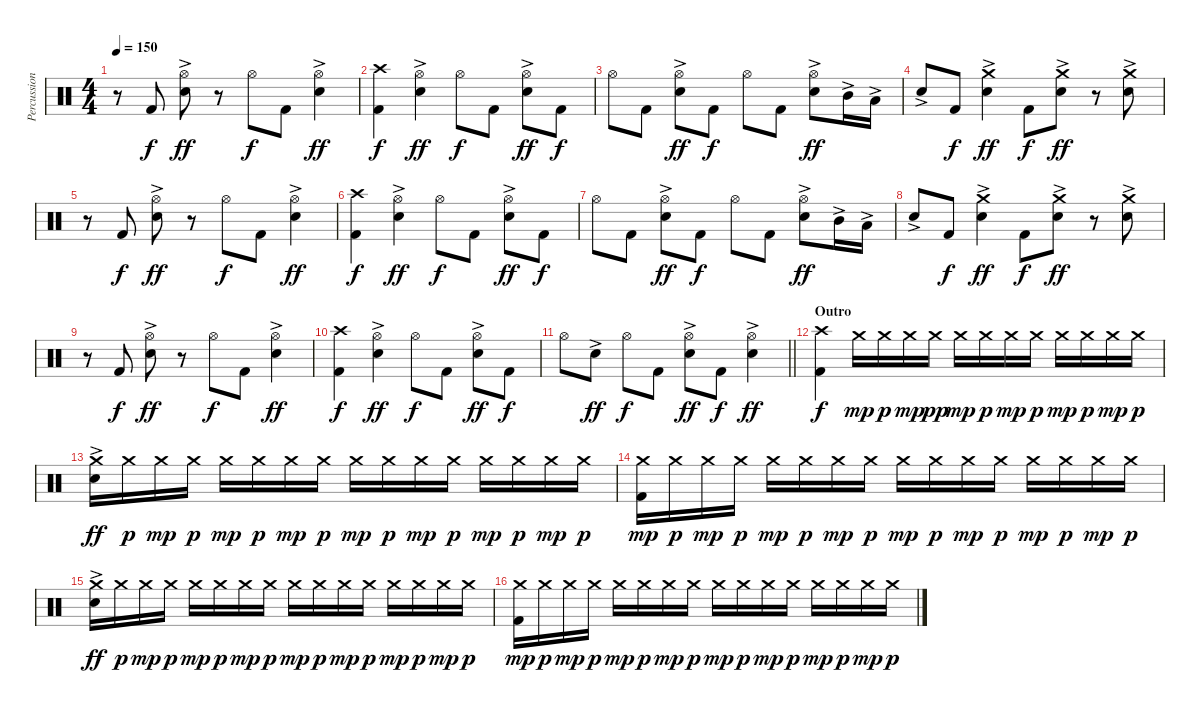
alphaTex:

\track ("Percussion" "Percussion") {instrument percussion}
\staff {score}
\articulation defaults
\ts (4 4)
\tempo 150
\clef neutral
\ks c
r.8{dy ff} "Kick (hit) 2".8{dy f} ("Hi-Hat (open)" "Electric Snare (hit)"{ac}).8{dy ff} r.8 "Hi-Hat (open)".8{dy f} "Kick (hit) 2".8 ("Hi-Hat (open)" "Electric Snare (hit)"{ac}).4{dy ff} |
("Crash high (hit)" "Kick (hit) 2").4{dy f} ("Hi-Hat (open)" "Electric Snare (hit)"{ac}).4{dy ff} "Hi-Hat (open)".8{dy f} "Kick (hit) 2".8 ("Hi-Hat (open)" "Electric Snare (hit)"{ac}).8{dy ff} "Kick (hit) 2".8{dy f} |
"Hi-Hat (open)".8 "Kick (hit) 2".8 ("Hi-Hat (open)" "Electric Snare (hit)"{ac}).8{dy ff} "Kick (hit) 2".8{dy f} "Hi-Hat (open)".8 "Kick (hit) 2".8 ("Hi-Hat (open)" "Electric Snare (hit)"{ac}).8{dy ff} "Mid Tom (hit)"{ac}.16 "Low Tom (hit)"{ac}.16 |
"Electric Snare (hit)"{ac}.8 "Kick (hit) 2".8{dy f} ("Crash medium (hit)" "Electric Snare (hit)"{ac}).4{dy ff} "Kick (hit) 2".8{dy f} ("Crash medium (hit)" "Electric Snare (hit)"{ac}).8{dy ff} r.8 ("Crash medium (hit)" "Electric Snare (hit)"{ac}).8 |
r.8 "Kick (hit) 2".8{dy f} ("Hi-Hat (open)" "Electric Snare (hit)"{ac}).8{dy ff} r.8 "Hi-Hat (open)".8{dy f} "Kick (hit) 2".8 ("Hi-Hat (open)" "Electric Snare (hit)"{ac}).4{dy ff} |
("Crash high (hit)" "Kick (hit) 2").4{dy f} ("Hi-Hat (open)" "Electric Snare (hit)"{ac}).4{dy ff} "Hi-Hat (open)".8{dy f} "Kick (hit) 2".8 ("Hi-Hat (open)" "Electric Snare (hit)"{ac}).8{dy ff} "Kick (hit) 2".8{dy f} |
"Hi-Hat (open)".8 "Kick (hit) 2".8 ("Hi-Hat (open)" "Electric Snare (hit)"{ac}).8{dy ff} "Kick (hit) 2".8{dy f} "Hi-Hat (open)".8 "Kick (hit) 2".8 ("Hi-Hat (open)" "Electric Snare (hit)"{ac}).8{dy ff} "Mid Tom (hit)"{ac}.16 "Low Tom (hit)"{ac}.16 |
"Electric Snare (hit)"{ac}.8 "Kick (hit) 2".8{dy f} ("Crash medium (hit)" "Electric Snare (hit)"{ac}).4{dy ff} "Kick (hit) 2".8{dy f} ("Crash medium (hit)" "Electric Snare (hit)"{ac}).8{dy ff} r.8 ("Crash medium (hit)" "Electric Snare (hit)"{ac}).8 |
r.8 "Kick (hit) 2".8{dy f} ("Hi-Hat (open)" "Electric Snare (hit)"{ac}).8{dy ff} r.8 "Hi-Hat (open)".8{dy f} "Kick (hit) 2".8 ("Hi-Hat (open)" "Electric Snare (hit)"{ac}).4{dy ff} |
("Crash high (hit)" "Kick (hit) 2").4{dy f} ("Hi-Hat (open)" "Electric Snare (hit)"{ac}).4{dy ff} "Hi-Hat (open)".8{dy f} "Kick (hit) 2".8 ("Hi-Hat (open)" "Electric Snare (hit)"{ac}).8{dy ff} "Kick (hit) 2".8{dy f} |
\barLineRight lightlight "Hi-Hat (open)".8 "Electric Snare (hit)"{ac}.8{dy ff} "Hi-Hat (open)".8{dy f} "Kick (hit) 2".8
("Hi-Hat (open)" "Electric Snare (hit)"{ac}).8{dy ff} "Kick (hit) 2".8{dy f} ("Hi-Hat (open)" "Electric Snare (hit)"{ac}).4{dy ff} |
\section ("" "Outro")
("Crash high (hit)" "Kick (hit) 2").4{dy f} "Crash medium (hit)".16{dy mp} "Crash medium (hit)".16{dy p} "Crash medium (hit)".16{dy mp} "Crash medium (hit)".16{dy pp} "Crash medium (hit)".16{dy mp} "Crash medium (hit)".16{dy p} "Crash medium (hit)".16{dy mp} "Crash medium (hit)".16{dy p} "Crash medium (hit)".16{dy mp} "Crash medium (hit)".16{dy p} "Crash medium (hit)".16{dy mp} "Crash medium (hit)".16{dy p} |
("Crash medium (hit)" "Electric Snare (hit)"{ac}).16{dy ff} "Crash medium (hit)".16{dy p} "Crash medium (hit)".16{dy mp} "Crash medium (hit)".16{dy p} "Crash medium (hit)".16{dy mp} "Crash medium (hit)".16{dy p} "Crash medium (hit)".16{dy mp} "Crash medium (hit)".16{dy p} "Crash medium (hit)".16{dy mp} "Crash medium (hit)".16{dy p} "Crash medium (hit)".16{dy mp} "Crash medium (hit)".16{dy p} "Crash medium (hit)".16{dy mp} "Crash medium (hit)".16{dy p} "Crash medium (hit)".16{dy mp} "Crash medium (hit)".16{dy p} |
("Crash medium (hit)" "Kick (hit) 2").16{dy mp} "Crash medium (hit)".16{dy p} "Crash medium (hit)".16{dy mp} "Crash medium (hit)".16{dy p} "Crash medium (hit)".16{dy mp} "Crash medium (hit)".16{dy p} "Crash medium (hit)".16{dy mp} "Crash medium (hit)".16{dy p} "Crash medium (hit)".16{dy mp} "Crash medium (hit)".16{dy p} "Crash medium (hit)".16{dy mp} "Crash medium (hit)".16{dy p} "Crash medium (hit)".16{dy mp} "Crash medium (hit)".16{dy p} "Crash medium (hit)".16{dy mp} "Crash medium (hit)".16{dy p} |
("Crash medium (hit)" "Electric Snare (hit)"{ac}).16{dy ff} "Crash medium (hit)".16{dy p} "Crash medium (hit)".16{dy mp} "Crash medium (hit)".16{dy p} "Crash medium (hit)".16{dy mp} "Crash medium (hit)".16{dy p} "Crash medium (hit)".16{dy mp} "Crash medium (hit)".16{dy p} "Crash medium (hit)".16{dy mp} "Crash medium (hit)".16{dy p} "Crash medium (hit)".16{dy mp} "Crash medium (hit)".16{dy p} "Crash medium (hit)".16{dy mp} "Crash medium (hit)".16{dy p} "Crash medium (hit)".16{dy mp} "Crash medium (hit)".16{dy p} |
("Crash medium (hit)" "Kick (hit) 2").16{dy mp} "Crash medium (hit)".16{dy p} "Crash medium (hit)".16{dy mp} "Crash medium (hit)".16{dy p} "Crash medium (hit)".16{dy mp} "Crash medium (hit)".16{dy p} "Crash medium (hit)".16{dy mp} "Crash medium (hit)".16{dy p} "Crash medium (hit)".16{dy mp} "Crash medium (hit)".16{dy p} "Crash medium (hit)".16{dy mp} "Crash medium (hit)".16{dy p} "Crash medium (hit)".16{dy mp} "Crash medium (hit)".16{dy p} "Crash medium (hit)".16{dy mp} "Crash medium (hit)".16{dy p}
